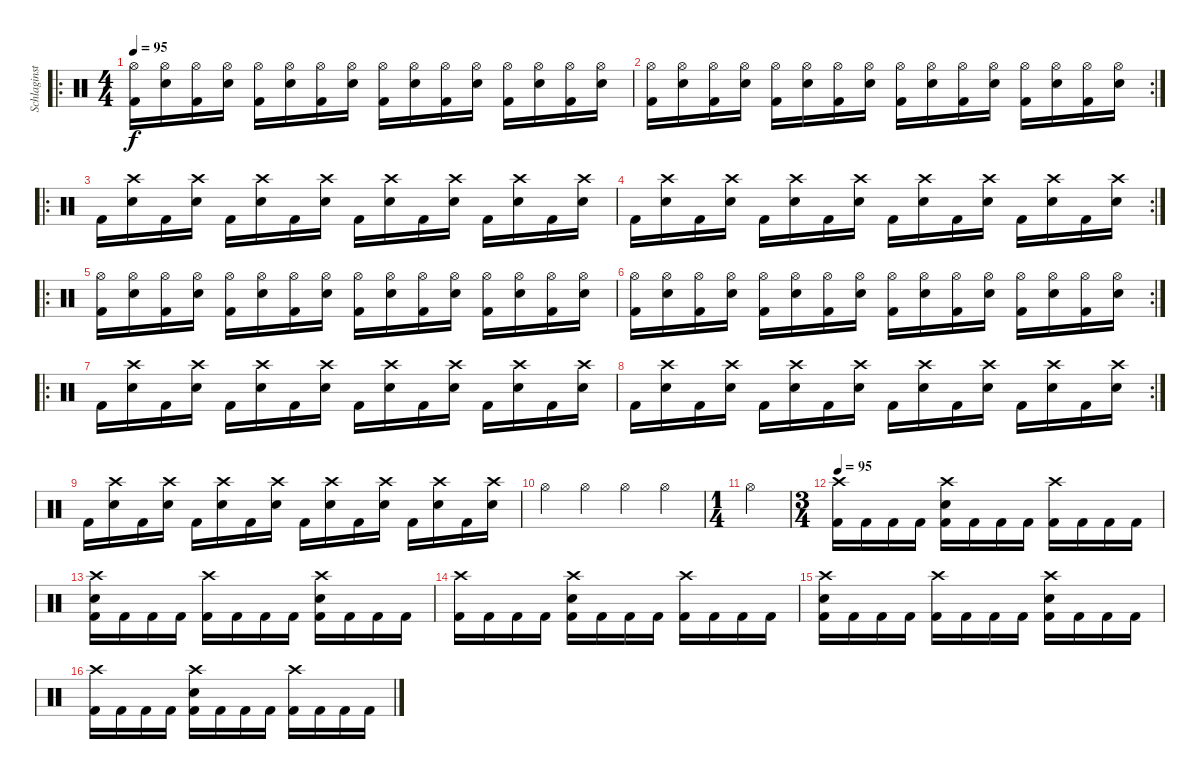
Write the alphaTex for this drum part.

\track ("Schlaginstrumente - Auswahl" "Schlaginst") {instrument percussion}
\staff {score}
\articulation defaults
\ro
\ts (4 4)
\tempo 95
\clef neutral
\ks c
("Hi-Hat (open)" "Kick (hit) 2").16{dy f} ("Hi-Hat (open)" "Electric Snare (hit)").16 ("Hi-Hat (open)" "Kick (hit) 2").16 ("Hi-Hat (open)" "Electric Snare (hit)").16 ("Hi-Hat (open)" "Kick (hit) 2").16 ("Hi-Hat (open)" "Electric Snare (hit)").16 ("Hi-Hat (open)" "Kick (hit) 2").16 ("Hi-Hat (open)" "Electric Snare (hit)").16 ("Hi-Hat (open)" "Kick (hit) 2").16 ("Hi-Hat (open)" "Electric Snare (hit)").16 ("Hi-Hat (open)" "Kick (hit) 2").16 ("Hi-Hat (open)" "Electric Snare (hit)").16 ("Hi-Hat (open)" "Kick (hit) 2").16 ("Hi-Hat (open)" "Electric Snare (hit)").16 ("Hi-Hat (open)" "Kick (hit) 2").16 ("Hi-Hat (open)" "Electric Snare (hit)").16 |
\rc 2
("Hi-Hat (open)" "Kick (hit) 2").16 ("Hi-Hat (open)" "Electric Snare (hit)").16 ("Hi-Hat (open)" "Kick (hit) 2").16 ("Hi-Hat (open)" "Electric Snare (hit)").16 ("Hi-Hat (open)" "Kick (hit) 2").16 ("Hi-Hat (open)" "Electric Snare (hit)").16 ("Hi-Hat (open)" "Kick (hit) 2").16 ("Hi-Hat (open)" "Electric Snare (hit)").16 ("Hi-Hat (open)" "Kick (hit) 2").16 ("Hi-Hat (open)" "Electric Snare (hit)").16 ("Hi-Hat (open)" "Kick (hit) 2").16 ("Hi-Hat (open)" "Electric Snare (hit)").16 ("Hi-Hat (open)" "Kick (hit) 2").16 ("Hi-Hat (open)" "Electric Snare (hit)").16 ("Hi-Hat (open)" "Kick (hit) 2").16 ("Hi-Hat (open)" "Electric Snare (hit)").16 |
\ro "Kick (hit) 2".16
("Crash high (hit)" "Electric Snare (hit)").16 "Kick (hit) 2".16 ("Crash high (hit)" "Electric Snare (hit)").16 "Kick (hit) 2".16 ("Crash high (hit)" "Electric Snare (hit)").16 "Kick (hit) 2".16 ("Crash high (hit)" "Electric Snare (hit)").16 "Kick (hit) 2".16 ("Crash high (hit)" "Electric Snare (hit)").16 "Kick (hit) 2".16 ("Crash high (hit)" "Electric Snare (hit)").16 "Kick (hit) 2".16 ("Crash high (hit)" "Electric Snare (hit)").16 "Kick (hit) 2".16 ("Crash high (hit)" "Electric Snare (hit)").16 |
\rc 2 "Kick (hit) 2".16
("Crash high (hit)" "Electric Snare (hit)").16 "Kick (hit) 2".16 ("Crash high (hit)" "Electric Snare (hit)").16 "Kick (hit) 2".16 ("Crash high (hit)" "Electric Snare (hit)").16 "Kick (hit) 2".16 ("Crash high (hit)" "Electric Snare (hit)").16 "Kick (hit) 2".16 ("Crash high (hit)" "Electric Snare (hit)").16 "Kick (hit) 2".16 ("Crash high (hit)" "Electric Snare (hit)").16 "Kick (hit) 2".16 ("Crash high (hit)" "Electric Snare (hit)").16 "Kick (hit) 2".16 ("Crash high (hit)" "Electric Snare (hit)").16 |
\ro
("Hi-Hat (open)" "Kick (hit) 2").16 ("Hi-Hat (open)" "Electric Snare (hit)").16 ("Hi-Hat (open)" "Kick (hit) 2").16 ("Hi-Hat (open)" "Electric Snare (hit)").16 ("Hi-Hat (open)" "Kick (hit) 2").16 ("Hi-Hat (open)" "Electric Snare (hit)").16 ("Hi-Hat (open)" "Kick (hit) 2").16 ("Hi-Hat (open)" "Electric Snare (hit)").16 ("Hi-Hat (open)" "Kick (hit) 2").16 ("Hi-Hat (open)" "Electric Snare (hit)").16 ("Hi-Hat (open)" "Kick (hit) 2").16 ("Hi-Hat (open)" "Electric Snare (hit)").16 ("Hi-Hat (open)" "Kick (hit) 2").16 ("Hi-Hat (open)" "Electric Snare (hit)").16 ("Hi-Hat (open)" "Kick (hit) 2").16 ("Hi-Hat (open)" "Electric Snare (hit)").16 |
\rc 2
("Hi-Hat (open)" "Kick (hit) 2").16 ("Hi-Hat (open)" "Electric Snare (hit)").16 ("Hi-Hat (open)" "Kick (hit) 2").16 ("Hi-Hat (open)" "Electric Snare (hit)").16 ("Hi-Hat (open)" "Kick (hit) 2").16 ("Hi-Hat (open)" "Electric Snare (hit)").16 ("Hi-Hat (open)" "Kick (hit) 2").16 ("Hi-Hat (open)" "Electric Snare (hit)").16 ("Hi-Hat (open)" "Kick (hit) 2").16 ("Hi-Hat (open)" "Electric Snare (hit)").16 ("Hi-Hat (open)" "Kick (hit) 2").16 ("Hi-Hat (open)" "Electric Snare (hit)").16 ("Hi-Hat (open)" "Kick (hit) 2").16 ("Hi-Hat (open)" "Electric Snare (hit)").16 ("Hi-Hat (open)" "Kick (hit) 2").16 ("Hi-Hat (open)" "Electric Snare (hit)").16 |
\ro "Kick (hit) 2".16
("Crash high (hit)" "Electric Snare (hit)").16 "Kick (hit) 2".16 ("Crash high (hit)" "Electric Snare (hit)").16 "Kick (hit) 2".16 ("Crash high (hit)" "Electric Snare (hit)").16 "Kick (hit) 2".16 ("Crash high (hit)" "Electric Snare (hit)").16 "Kick (hit) 2".16 ("Crash high (hit)" "Electric Snare (hit)").16 "Kick (hit) 2".16 ("Crash high (hit)" "Electric Snare (hit)").16 "Kick (hit) 2".16 ("Crash high (hit)" "Electric Snare (hit)").16 "Kick (hit) 2".16 ("Crash high (hit)" "Electric Snare (hit)").16 |
\rc 2 "Kick (hit) 2".16
("Crash high (hit)" "Electric Snare (hit)").16 "Kick (hit) 2".16 ("Crash high (hit)" "Electric Snare (hit)").16 "Kick (hit) 2".16 ("Crash high (hit)" "Electric Snare (hit)").16 "Kick (hit) 2".16 ("Crash high (hit)" "Electric Snare (hit)").16 "Kick (hit) 2".16 ("Crash high (hit)" "Electric Snare (hit)").16 "Kick (hit) 2".16 ("Crash high (hit)" "Electric Snare (hit)").16 "Kick (hit) 2".16 ("Crash high (hit)" "Electric Snare (hit)").16 "Kick (hit) 2".16 ("Crash high (hit)" "Electric Snare (hit)").16 |
"Kick (hit) 2".16 ("Crash high (hit)" "Electric Snare (hit)").16 "Kick (hit) 2".16 ("Crash high (hit)" "Electric Snare (hit)").16 "Kick (hit) 2".16 ("Crash high (hit)" "Electric Snare (hit)").16 "Kick (hit) 2".16 ("Crash high (hit)" "Electric Snare (hit)").16 "Kick (hit) 2".16 ("Crash high (hit)" "Electric Snare (hit)").16 "Kick (hit) 2".16 ("Crash high (hit)" "Electric Snare (hit)").16 "Kick (hit) 2".16 ("Crash high (hit)" "Electric Snare (hit)").16 "Kick (hit) 2".16 ("Crash high (hit)" "Electric Snare (hit)").16 |
"Hi-Hat (open)".4 "Hi-Hat (open)".4 "Hi-Hat (open)".4 "Hi-Hat (open)".4 |
\ts (1 4)
"Hi-Hat (open)".4 |
\ts (3 4)
\tempo 95
("Crash high (hit)" "Kick (hit) 2").16 "Kick (hit) 2".16 "Kick (hit) 2".16 "Kick (hit) 2".16 ("Crash high (hit)" "Electric Snare (hit)" "Kick (hit) 2").16 "Kick (hit) 2".16 "Kick (hit) 2".16 "Kick (hit) 2".16 ("Crash high (hit)" "Kick (hit) 2").16 "Kick (hit) 2".16 "Kick (hit) 2".16 "Kick (hit) 2".16 |
("Crash high (hit)" "Electric Snare (hit)" "Kick (hit) 2").16 "Kick (hit) 2".16 "Kick (hit) 2".16 "Kick (hit) 2".16 ("Crash high (hit)" "Kick (hit) 2").16 "Kick (hit) 2".16 "Kick (hit) 2".16 "Kick (hit) 2".16 ("Crash high (hit)" "Electric Snare (hit)" "Kick (hit) 2").16 "Kick (hit) 2".16 "Kick (hit) 2".16 "Kick (hit) 2".16 |
("Crash high (hit)" "Kick (hit) 2").16 "Kick (hit) 2".16 "Kick (hit) 2".16 "Kick (hit) 2".16 ("Crash high (hit)" "Electric Snare (hit)" "Kick (hit) 2").16 "Kick (hit) 2".16 "Kick (hit) 2".16 "Kick (hit) 2".16 ("Crash high (hit)" "Kick (hit) 2").16 "Kick (hit) 2".16 "Kick (hit) 2".16 "Kick (hit) 2".16 |
("Crash high (hit)" "Electric Snare (hit)" "Kick (hit) 2").16 "Kick (hit) 2".16 "Kick (hit) 2".16 "Kick (hit) 2".16 ("Crash high (hit)" "Kick (hit) 2").16 "Kick (hit) 2".16 "Kick (hit) 2".16 "Kick (hit) 2".16 ("Crash high (hit)" "Electric Snare (hit)" "Kick (hit) 2").16 "Kick (hit) 2".16 "Kick (hit) 2".16 "Kick (hit) 2".16 |
("Crash high (hit)" "Kick (hit) 2").16 "Kick (hit) 2".16 "Kick (hit) 2".16 "Kick (hit) 2".16 ("Crash high (hit)" "Electric Snare (hit)" "Kick (hit) 2").16 "Kick (hit) 2".16 "Kick (hit) 2".16 "Kick (hit) 2".16 ("Crash high (hit)" "Kick (hit) 2").16 "Kick (hit) 2".16 "Kick (hit) 2".16 "Kick (hit) 2".16
